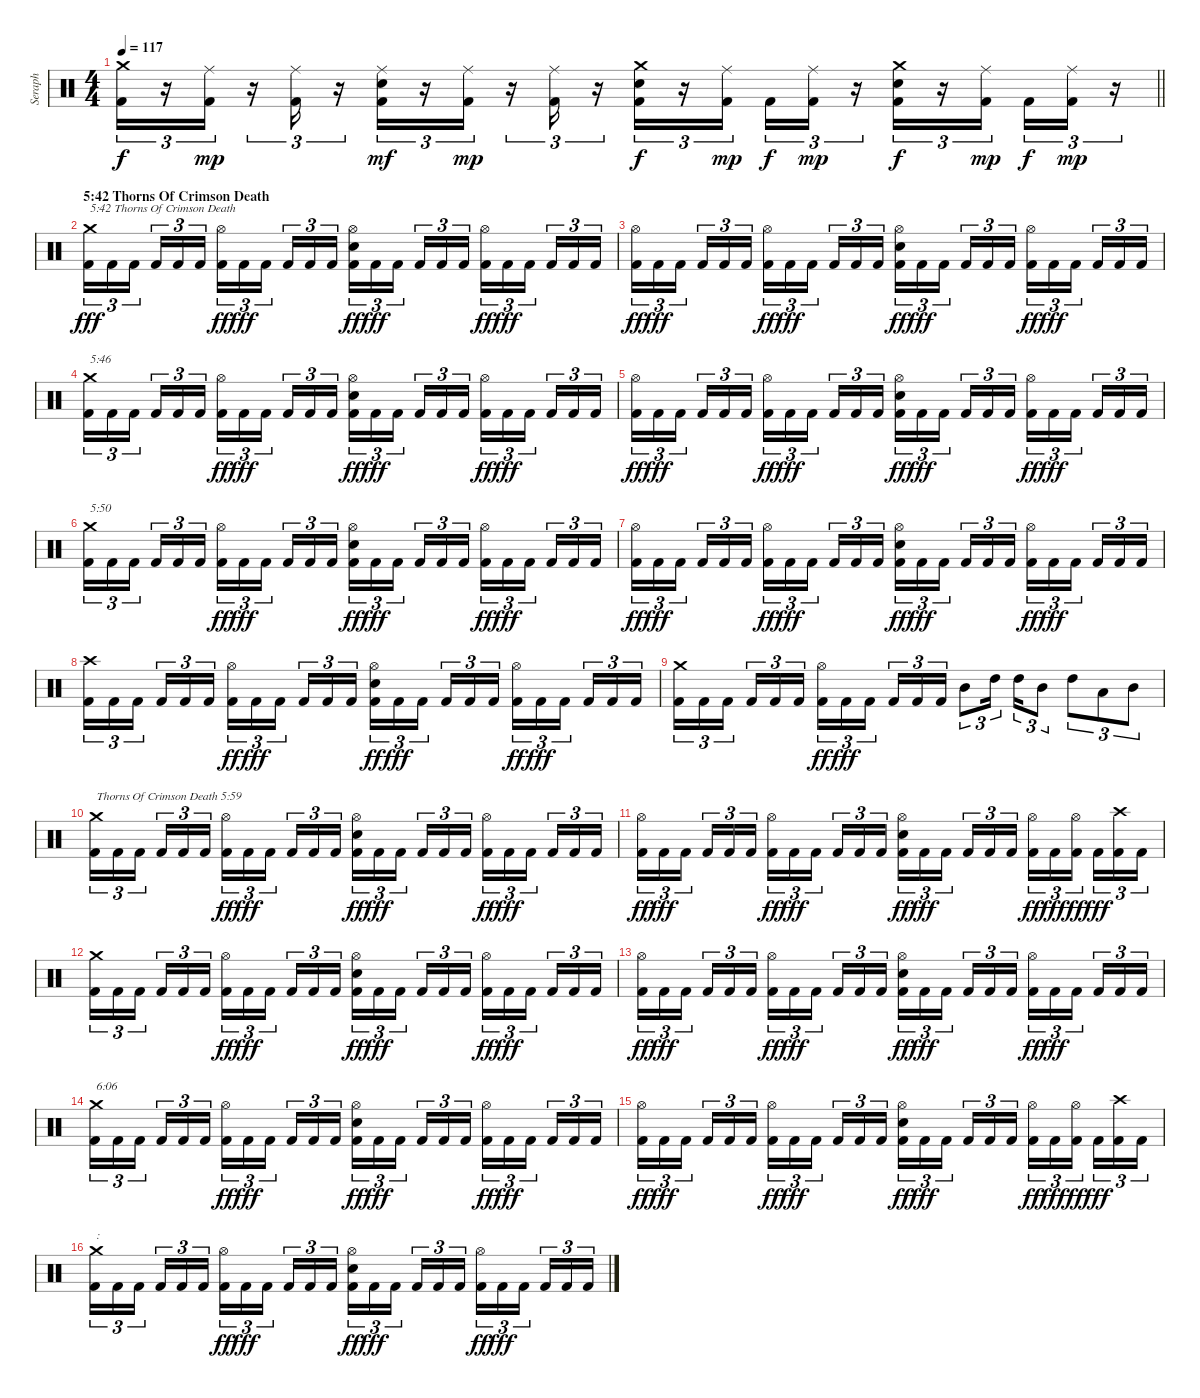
\track ("Seraph" "Seraph") {instrument percussion}
\staff {score}
\articulation defaults
\ts (4 4)
\tempo 117
\clef neutral
\barLineRight lightlight
\ks c
("Kick (hit) 2" "Crash medium (hit)").16{tu (3 2) dy f} r.16{tu (3 2)} ("Kick (hit) 2" "Ride (middle)").16{tu (3 2) dy mp} r.16{tu (3 2)} ("Kick (hit) 2" "Ride (middle)").16{tu (3 2)} r.16{tu (3 2)} ("Kick (hit) 2" "Electric Snare (hit)" "Ride (middle)").16{tu (3 2) dy mf} r.16{tu (3 2)} ("Kick (hit) 2" "Ride (middle)").16{tu (3 2) dy mp} r.16{tu (3 2)} ("Kick (hit) 2" "Ride (middle)").16{tu (3 2)} r.16{tu (3 2)} ("Kick (hit) 2" "Electric Snare (hit)" "Crash medium (hit)").16{tu (3 2) dy f} r.16{tu (3 2)} ("Kick (hit) 2" "Ride (middle)").16{tu (3 2) dy mp beam splitsecondary} "Kick (hit) 2".16{tu (3 2) dy f} ("Kick (hit) 2" "Ride (middle)").16{tu (3 2) dy mp} r.16{tu (3 2)} ("Kick (hit) 2" "Electric Snare (hit)" "Crash medium (hit)").16{tu (3 2) dy f} r.16{tu (3 2)} ("Kick (hit) 2" "Ride (middle)").16{tu (3 2) dy mp beam splitsecondary} "Kick (hit) 2".16{tu (3 2) dy f} ("Kick (hit) 2" "Ride (middle)").16{tu (3 2) dy mp} r.16{tu (3 2)} |
\section ("" "5:42 Thorns Of Crimson Death")
("Kick (hit) 2" "Crash medium (hit)").16{tu (3 2) txt "5:42 Thorns Of Crimson Death" dy fff} "Kick (hit) 2".16{tu (3 2)} "Kick (hit) 2".16{tu (3 2) beam splitsecondary} "Kick (hit) 2".16{tu (3 2)} "Kick (hit) 2".16{tu (3 2)} "Kick (hit) 2".16{tu (3 2)} ("Kick (hit) 2" "Hi-Hat (open)").16{tu (3 2) dy ff} "Kick (hit) 2".16{tu (3 2) dy fff} "Kick (hit) 2".16{tu (3 2) beam splitsecondary} "Kick (hit) 2".16{tu (3 2)} "Kick (hit) 2".16{tu (3 2)} "Kick (hit) 2".16{tu (3 2)} ("Kick (hit) 2" "Electric Snare (hit)" "Hi-Hat (open)").16{tu (3 2) dy ff} "Kick (hit) 2".16{tu (3 2) dy fff} "Kick (hit) 2".16{tu (3 2) beam splitsecondary} "Kick (hit) 2".16{tu (3 2)} "Kick (hit) 2".16{tu (3 2)} "Kick (hit) 2".16{tu (3 2)} ("Kick (hit) 2" "Hi-Hat (open)").16{tu (3 2) dy ff} "Kick (hit) 2".16{tu (3 2) dy fff} "Kick (hit) 2".16{tu (3 2) beam splitsecondary} "Kick (hit) 2".16{tu (3 2)} "Kick (hit) 2".16{tu (3 2)} "Kick (hit) 2".16{tu (3 2)} |
("Kick (hit) 2" "Hi-Hat (open)").16{tu (3 2) dy ff} "Kick (hit) 2".16{tu (3 2) dy fff} "Kick (hit) 2".16{tu (3 2) beam splitsecondary} "Kick (hit) 2".16{tu (3 2)} "Kick (hit) 2".16{tu (3 2)} "Kick (hit) 2".16{tu (3 2)} ("Kick (hit) 2" "Hi-Hat (open)").16{tu (3 2) dy ff} "Kick (hit) 2".16{tu (3 2) dy fff} "Kick (hit) 2".16{tu (3 2) beam splitsecondary} "Kick (hit) 2".16{tu (3 2)} "Kick (hit) 2".16{tu (3 2)} "Kick (hit) 2".16{tu (3 2)} ("Kick (hit) 2" "Electric Snare (hit)" "Hi-Hat (open)").16{tu (3 2) dy ff} "Kick (hit) 2".16{tu (3 2) dy fff} "Kick (hit) 2".16{tu (3 2) beam splitsecondary} "Kick (hit) 2".16{tu (3 2)} "Kick (hit) 2".16{tu (3 2)} "Kick (hit) 2".16{tu (3 2)} ("Kick (hit) 2" "Hi-Hat (open)").16{tu (3 2) dy ff} "Kick (hit) 2".16{tu (3 2) dy fff} "Kick (hit) 2".16{tu (3 2) beam splitsecondary} "Kick (hit) 2".16{tu (3 2)} "Kick (hit) 2".16{tu (3 2)} "Kick (hit) 2".16{tu (3 2)} |
("Kick (hit) 2" "Crash medium (hit)").16{tu (3 2) txt "5:46"} "Kick (hit) 2".16{tu (3 2)} "Kick (hit) 2".16{tu (3 2) beam splitsecondary} "Kick (hit) 2".16{tu (3 2)} "Kick (hit) 2".16{tu (3 2)} "Kick (hit) 2".16{tu (3 2)} ("Kick (hit) 2" "Hi-Hat (open)").16{tu (3 2) dy ff} "Kick (hit) 2".16{tu (3 2) dy fff} "Kick (hit) 2".16{tu (3 2) beam splitsecondary} "Kick (hit) 2".16{tu (3 2)} "Kick (hit) 2".16{tu (3 2)} "Kick (hit) 2".16{tu (3 2)} ("Kick (hit) 2" "Electric Snare (hit)" "Hi-Hat (open)").16{tu (3 2) dy ff} "Kick (hit) 2".16{tu (3 2) dy fff} "Kick (hit) 2".16{tu (3 2) beam splitsecondary} "Kick (hit) 2".16{tu (3 2)} "Kick (hit) 2".16{tu (3 2)} "Kick (hit) 2".16{tu (3 2)} ("Kick (hit) 2" "Hi-Hat (open)").16{tu (3 2) dy ff} "Kick (hit) 2".16{tu (3 2) dy fff} "Kick (hit) 2".16{tu (3 2) beam splitsecondary} "Kick (hit) 2".16{tu (3 2)} "Kick (hit) 2".16{tu (3 2)} "Kick (hit) 2".16{tu (3 2)} |
("Kick (hit) 2" "Hi-Hat (open)").16{tu (3 2) dy ff} "Kick (hit) 2".16{tu (3 2) dy fff} "Kick (hit) 2".16{tu (3 2) beam splitsecondary} "Kick (hit) 2".16{tu (3 2)} "Kick (hit) 2".16{tu (3 2)} "Kick (hit) 2".16{tu (3 2)} ("Kick (hit) 2" "Hi-Hat (open)").16{tu (3 2) dy ff} "Kick (hit) 2".16{tu (3 2) dy fff} "Kick (hit) 2".16{tu (3 2) beam splitsecondary} "Kick (hit) 2".16{tu (3 2)} "Kick (hit) 2".16{tu (3 2)} "Kick (hit) 2".16{tu (3 2)} ("Kick (hit) 2" "Electric Snare (hit)" "Hi-Hat (open)").16{tu (3 2) dy ff} "Kick (hit) 2".16{tu (3 2) dy fff} "Kick (hit) 2".16{tu (3 2) beam splitsecondary} "Kick (hit) 2".16{tu (3 2)} "Kick (hit) 2".16{tu (3 2)} "Kick (hit) 2".16{tu (3 2)} ("Kick (hit) 2" "Hi-Hat (open)").16{tu (3 2) dy ff} "Kick (hit) 2".16{tu (3 2) dy fff} "Kick (hit) 2".16{tu (3 2) beam splitsecondary} "Kick (hit) 2".16{tu (3 2)} "Kick (hit) 2".16{tu (3 2)} "Kick (hit) 2".16{tu (3 2)} |
("Kick (hit) 2" "Crash medium (hit)").16{tu (3 2) txt "5:50"} "Kick (hit) 2".16{tu (3 2)} "Kick (hit) 2".16{tu (3 2) beam splitsecondary} "Kick (hit) 2".16{tu (3 2)} "Kick (hit) 2".16{tu (3 2)} "Kick (hit) 2".16{tu (3 2)} ("Kick (hit) 2" "Hi-Hat (open)").16{tu (3 2) dy ff} "Kick (hit) 2".16{tu (3 2) dy fff} "Kick (hit) 2".16{tu (3 2) beam splitsecondary} "Kick (hit) 2".16{tu (3 2)} "Kick (hit) 2".16{tu (3 2)} "Kick (hit) 2".16{tu (3 2)} ("Kick (hit) 2" "Electric Snare (hit)" "Hi-Hat (open)").16{tu (3 2) dy ff} "Kick (hit) 2".16{tu (3 2) dy fff} "Kick (hit) 2".16{tu (3 2) beam splitsecondary} "Kick (hit) 2".16{tu (3 2)} "Kick (hit) 2".16{tu (3 2)} "Kick (hit) 2".16{tu (3 2)} ("Kick (hit) 2" "Hi-Hat (open)").16{tu (3 2) dy ff} "Kick (hit) 2".16{tu (3 2) dy fff} "Kick (hit) 2".16{tu (3 2) beam splitsecondary} "Kick (hit) 2".16{tu (3 2)} "Kick (hit) 2".16{tu (3 2)} "Kick (hit) 2".16{tu (3 2)} |
("Kick (hit) 2" "Hi-Hat (open)").16{tu (3 2) dy ff} "Kick (hit) 2".16{tu (3 2) dy fff} "Kick (hit) 2".16{tu (3 2) beam splitsecondary} "Kick (hit) 2".16{tu (3 2)} "Kick (hit) 2".16{tu (3 2)} "Kick (hit) 2".16{tu (3 2)} ("Kick (hit) 2" "Hi-Hat (open)").16{tu (3 2) dy ff} "Kick (hit) 2".16{tu (3 2) dy fff} "Kick (hit) 2".16{tu (3 2) beam splitsecondary} "Kick (hit) 2".16{tu (3 2)} "Kick (hit) 2".16{tu (3 2)} "Kick (hit) 2".16{tu (3 2)} ("Kick (hit) 2" "Electric Snare (hit)" "Hi-Hat (open)").16{tu (3 2) dy ff} "Kick (hit) 2".16{tu (3 2) dy fff} "Kick (hit) 2".16{tu (3 2) beam splitsecondary} "Kick (hit) 2".16{tu (3 2)} "Kick (hit) 2".16{tu (3 2)} "Kick (hit) 2".16{tu (3 2)} ("Kick (hit) 2" "Hi-Hat (open)").16{tu (3 2) dy ff} "Kick (hit) 2".16{tu (3 2) dy fff} "Kick (hit) 2".16{tu (3 2) beam splitsecondary} "Kick (hit) 2".16{tu (3 2)} "Kick (hit) 2".16{tu (3 2)} "Kick (hit) 2".16{tu (3 2)} |
("Kick (hit) 2" "Crash high (hit)").16{tu (3 2)} "Kick (hit) 2".16{tu (3 2)} "Kick (hit) 2".16{tu (3 2) beam splitsecondary} "Kick (hit) 2".16{tu (3 2)} "Kick (hit) 2".16{tu (3 2)} "Kick (hit) 2".16{tu (3 2)} ("Kick (hit) 2" "Hi-Hat (open)").16{tu (3 2) dy ff} "Kick (hit) 2".16{tu (3 2) dy fff} "Kick (hit) 2".16{tu (3 2) beam splitsecondary} "Kick (hit) 2".16{tu (3 2)} "Kick (hit) 2".16{tu (3 2)} "Kick (hit) 2".16{tu (3 2)} ("Kick (hit) 2" "Electric Snare (hit)" "Hi-Hat (open)").16{tu (3 2) dy ff} "Kick (hit) 2".16{tu (3 2) dy fff} "Kick (hit) 2".16{tu (3 2) beam splitsecondary} "Kick (hit) 2".16{tu (3 2)} "Kick (hit) 2".16{tu (3 2)} "Kick (hit) 2".16{tu (3 2)} ("Kick (hit) 2" "Hi-Hat (open)").16{tu (3 2) dy ff} "Kick (hit) 2".16{tu (3 2) dy fff} "Kick (hit) 2".16{tu (3 2) beam splitsecondary} "Kick (hit) 2".16{tu (3 2)} "Kick (hit) 2".16{tu (3 2)} "Kick (hit) 2".16{tu (3 2)} |
("Kick (hit) 2" "Crash medium (hit)").16{tu (3 2)} "Kick (hit) 2".16{tu (3 2)} "Kick (hit) 2".16{tu (3 2) beam splitsecondary} "Kick (hit) 2".16{tu (3 2)} "Kick (hit) 2".16{tu (3 2)} "Kick (hit) 2".16{tu (3 2)} ("Kick (hit) 2" "Hi-Hat (open)").16{tu (3 2) dy ff} "Kick (hit) 2".16{tu (3 2) dy fff} "Kick (hit) 2".16{tu (3 2) beam splitsecondary} "Kick (hit) 2".16{tu (3 2)} "Kick (hit) 2".16{tu (3 2)} "Kick (hit) 2".16{tu (3 2)} "Mid Tom (hit)".8{tu (3 2)} "High Tom (hit)".16{tu (3 2) beam splitsecondary} "High Tom (hit)".16{tu (3 2)} "Mid Tom (hit)".8{tu (3 2)} "High Tom (hit)".8{tu (3 2)} "Low Tom (hit)".8{tu (3 2)} "Mid Tom (hit)".8{tu (3 2)} |
("Kick (hit) 2" "Crash medium (hit)").16{tu (3 2) txt "Thorns Of Crimson Death 5:59"} "Kick (hit) 2".16{tu (3 2)} "Kick (hit) 2".16{tu (3 2) beam splitsecondary} "Kick (hit) 2".16{tu (3 2)} "Kick (hit) 2".16{tu (3 2)} "Kick (hit) 2".16{tu (3 2)} ("Kick (hit) 2" "Hi-Hat (open)").16{tu (3 2) dy ff} "Kick (hit) 2".16{tu (3 2) dy fff} "Kick (hit) 2".16{tu (3 2) beam splitsecondary} "Kick (hit) 2".16{tu (3 2)} "Kick (hit) 2".16{tu (3 2)} "Kick (hit) 2".16{tu (3 2)} ("Kick (hit) 2" "Electric Snare (hit)" "Hi-Hat (open)").16{tu (3 2) dy ff} "Kick (hit) 2".16{tu (3 2) dy fff} "Kick (hit) 2".16{tu (3 2) beam splitsecondary} "Kick (hit) 2".16{tu (3 2)} "Kick (hit) 2".16{tu (3 2)} "Kick (hit) 2".16{tu (3 2)} ("Kick (hit) 2" "Hi-Hat (open)").16{tu (3 2) dy ff} "Kick (hit) 2".16{tu (3 2) dy fff} "Kick (hit) 2".16{tu (3 2) beam splitsecondary} "Kick (hit) 2".16{tu (3 2)} "Kick (hit) 2".16{tu (3 2)} "Kick (hit) 2".16{tu (3 2)} |
("Kick (hit) 2" "Hi-Hat (open)").16{tu (3 2) dy ff} "Kick (hit) 2".16{tu (3 2) dy fff} "Kick (hit) 2".16{tu (3 2) beam splitsecondary} "Kick (hit) 2".16{tu (3 2)} "Kick (hit) 2".16{tu (3 2)} "Kick (hit) 2".16{tu (3 2)} ("Kick (hit) 2" "Hi-Hat (open)").16{tu (3 2) dy ff} "Kick (hit) 2".16{tu (3 2) dy fff} "Kick (hit) 2".16{tu (3 2) beam splitsecondary} "Kick (hit) 2".16{tu (3 2)} "Kick (hit) 2".16{tu (3 2)} "Kick (hit) 2".16{tu (3 2)} ("Kick (hit) 2" "Electric Snare (hit)" "Hi-Hat (open)").16{tu (3 2) dy ff} "Kick (hit) 2".16{tu (3 2) dy fff} "Kick (hit) 2".16{tu (3 2) beam splitsecondary} "Kick (hit) 2".16{tu (3 2)} "Kick (hit) 2".16{tu (3 2)} "Kick (hit) 2".16{tu (3 2)} ("Kick (hit) 2" "Hi-Hat (open)").16{tu (3 2) dy ff} "Kick (hit) 2".16{tu (3 2) dy fff} ("Kick (hit) 2" "Hi-Hat (open)").16{tu (3 2) dy ff beam splitsecondary} "Kick (hit) 2".16{tu (3 2) dy fff} ("Kick (hit) 2" "Crash high (hit)").16{tu (3 2)} "Kick (hit) 2".16{tu (3 2)} |
("Kick (hit) 2" "Crash medium (hit)").16{tu (3 2)} "Kick (hit) 2".16{tu (3 2)} "Kick (hit) 2".16{tu (3 2) beam splitsecondary} "Kick (hit) 2".16{tu (3 2)} "Kick (hit) 2".16{tu (3 2)} "Kick (hit) 2".16{tu (3 2)} ("Kick (hit) 2" "Hi-Hat (open)").16{tu (3 2) dy ff} "Kick (hit) 2".16{tu (3 2) dy fff} "Kick (hit) 2".16{tu (3 2) beam splitsecondary} "Kick (hit) 2".16{tu (3 2)} "Kick (hit) 2".16{tu (3 2)} "Kick (hit) 2".16{tu (3 2)} ("Kick (hit) 2" "Electric Snare (hit)" "Hi-Hat (open)").16{tu (3 2) dy ff} "Kick (hit) 2".16{tu (3 2) dy fff} "Kick (hit) 2".16{tu (3 2) beam splitsecondary} "Kick (hit) 2".16{tu (3 2)} "Kick (hit) 2".16{tu (3 2)} "Kick (hit) 2".16{tu (3 2)} ("Kick (hit) 2" "Hi-Hat (open)").16{tu (3 2) dy ff} "Kick (hit) 2".16{tu (3 2) dy fff} "Kick (hit) 2".16{tu (3 2) beam splitsecondary} "Kick (hit) 2".16{tu (3 2)} "Kick (hit) 2".16{tu (3 2)} "Kick (hit) 2".16{tu (3 2)} |
("Kick (hit) 2" "Hi-Hat (open)").16{tu (3 2) dy ff} "Kick (hit) 2".16{tu (3 2) dy fff} "Kick (hit) 2".16{tu (3 2) beam splitsecondary} "Kick (hit) 2".16{tu (3 2)} "Kick (hit) 2".16{tu (3 2)} "Kick (hit) 2".16{tu (3 2)} ("Kick (hit) 2" "Hi-Hat (open)").16{tu (3 2) dy ff} "Kick (hit) 2".16{tu (3 2) dy fff} "Kick (hit) 2".16{tu (3 2) beam splitsecondary} "Kick (hit) 2".16{tu (3 2)} "Kick (hit) 2".16{tu (3 2)} "Kick (hit) 2".16{tu (3 2)} ("Kick (hit) 2" "Electric Snare (hit)" "Hi-Hat (open)").16{tu (3 2) dy ff} "Kick (hit) 2".16{tu (3 2) dy fff} "Kick (hit) 2".16{tu (3 2) beam splitsecondary} "Kick (hit) 2".16{tu (3 2)} "Kick (hit) 2".16{tu (3 2)} "Kick (hit) 2".16{tu (3 2)} ("Kick (hit) 2" "Hi-Hat (open)").16{tu (3 2) dy ff} "Kick (hit) 2".16{tu (3 2) dy fff} "Kick (hit) 2".16{tu (3 2) beam splitsecondary} "Kick (hit) 2".16{tu (3 2)} "Kick (hit) 2".16{tu (3 2)} "Kick (hit) 2".16{tu (3 2)} |
("Kick (hit) 2" "Crash medium (hit)").16{tu (3 2) txt "6:06"} "Kick (hit) 2".16{tu (3 2)} "Kick (hit) 2".16{tu (3 2) beam splitsecondary} "Kick (hit) 2".16{tu (3 2)} "Kick (hit) 2".16{tu (3 2)} "Kick (hit) 2".16{tu (3 2)} ("Kick (hit) 2" "Hi-Hat (open)").16{tu (3 2) dy ff} "Kick (hit) 2".16{tu (3 2) dy fff} "Kick (hit) 2".16{tu (3 2) beam splitsecondary} "Kick (hit) 2".16{tu (3 2)} "Kick (hit) 2".16{tu (3 2)} "Kick (hit) 2".16{tu (3 2)} ("Kick (hit) 2" "Electric Snare (hit)" "Hi-Hat (open)").16{tu (3 2) dy ff} "Kick (hit) 2".16{tu (3 2) dy fff} "Kick (hit) 2".16{tu (3 2) beam splitsecondary} "Kick (hit) 2".16{tu (3 2)} "Kick (hit) 2".16{tu (3 2)} "Kick (hit) 2".16{tu (3 2)} ("Kick (hit) 2" "Hi-Hat (open)").16{tu (3 2) dy ff} "Kick (hit) 2".16{tu (3 2) dy fff} "Kick (hit) 2".16{tu (3 2) beam splitsecondary} "Kick (hit) 2".16{tu (3 2)} "Kick (hit) 2".16{tu (3 2)} "Kick (hit) 2".16{tu (3 2)} |
("Kick (hit) 2" "Hi-Hat (open)").16{tu (3 2) dy ff} "Kick (hit) 2".16{tu (3 2) dy fff} "Kick (hit) 2".16{tu (3 2) beam splitsecondary} "Kick (hit) 2".16{tu (3 2)} "Kick (hit) 2".16{tu (3 2)} "Kick (hit) 2".16{tu (3 2)} ("Kick (hit) 2" "Hi-Hat (open)").16{tu (3 2) dy ff} "Kick (hit) 2".16{tu (3 2) dy fff} "Kick (hit) 2".16{tu (3 2) beam splitsecondary} "Kick (hit) 2".16{tu (3 2)} "Kick (hit) 2".16{tu (3 2)} "Kick (hit) 2".16{tu (3 2)} ("Kick (hit) 2" "Electric Snare (hit)" "Hi-Hat (open)").16{tu (3 2) dy ff} "Kick (hit) 2".16{tu (3 2) dy fff} "Kick (hit) 2".16{tu (3 2) beam splitsecondary} "Kick (hit) 2".16{tu (3 2)} "Kick (hit) 2".16{tu (3 2)} "Kick (hit) 2".16{tu (3 2)} ("Kick (hit) 2" "Hi-Hat (open)").16{tu (3 2) dy ff} "Kick (hit) 2".16{tu (3 2) dy fff} ("Kick (hit) 2" "Hi-Hat (open)").16{tu (3 2) dy ff beam splitsecondary} "Kick (hit) 2".16{tu (3 2) dy fff} ("Kick (hit) 2" "Crash high (hit)").16{tu (3 2)} "Kick (hit) 2".16{tu (3 2)} |
("Kick (hit) 2" "Crash medium (hit)").16{tu (3 2) txt ":"} "Kick (hit) 2".16{tu (3 2)} "Kick (hit) 2".16{tu (3 2) beam splitsecondary} "Kick (hit) 2".16{tu (3 2)} "Kick (hit) 2".16{tu (3 2)} "Kick (hit) 2".16{tu (3 2)} ("Kick (hit) 2" "Hi-Hat (open)").16{tu (3 2) dy ff} "Kick (hit) 2".16{tu (3 2) dy fff} "Kick (hit) 2".16{tu (3 2) beam splitsecondary} "Kick (hit) 2".16{tu (3 2)} "Kick (hit) 2".16{tu (3 2)} "Kick (hit) 2".16{tu (3 2)} ("Kick (hit) 2" "Electric Snare (hit)" "Hi-Hat (open)").16{tu (3 2) dy ff} "Kick (hit) 2".16{tu (3 2) dy fff} "Kick (hit) 2".16{tu (3 2) beam splitsecondary} "Kick (hit) 2".16{tu (3 2)} "Kick (hit) 2".16{tu (3 2)} "Kick (hit) 2".16{tu (3 2)} ("Kick (hit) 2" "Hi-Hat (open)").16{tu (3 2) dy ff} "Kick (hit) 2".16{tu (3 2) dy fff} "Kick (hit) 2".16{tu (3 2) beam splitsecondary} "Kick (hit) 2".16{tu (3 2)} "Kick (hit) 2".16{tu (3 2)} "Kick (hit) 2".16{tu (3 2)}
